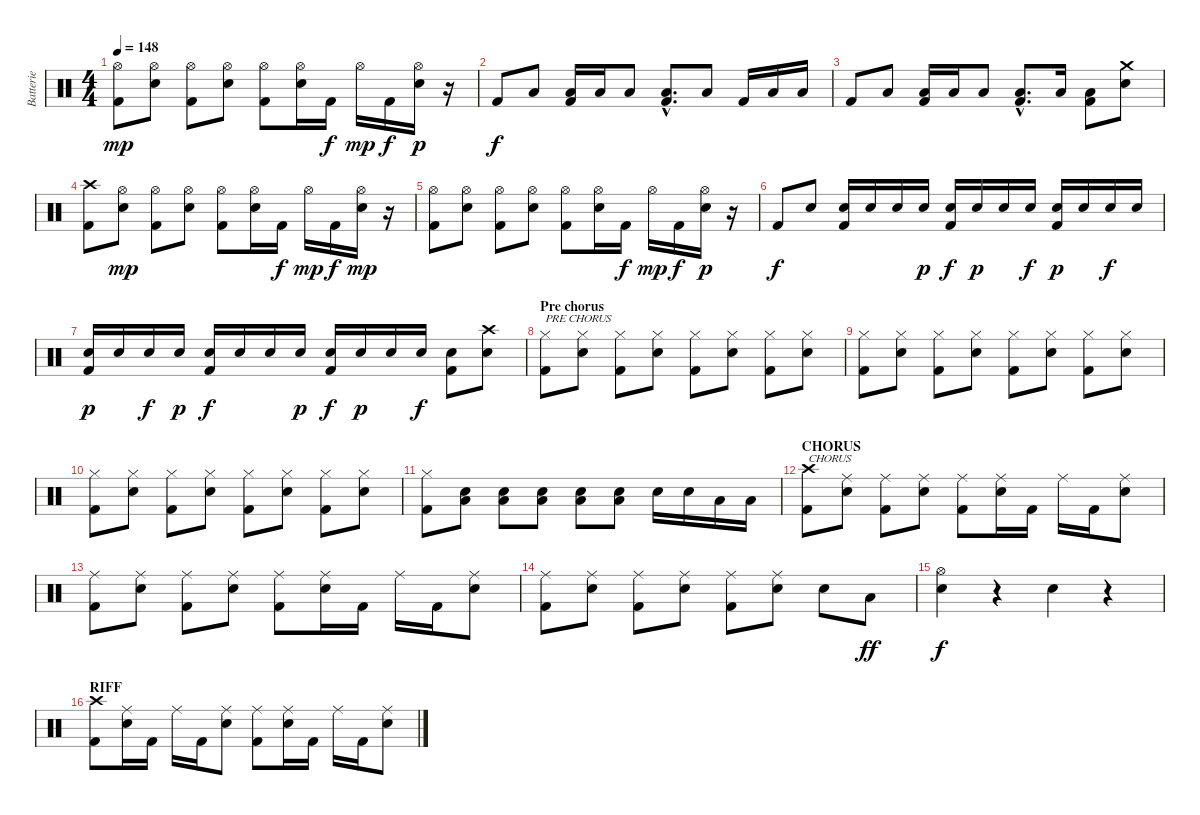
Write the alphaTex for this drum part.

\track ("Batterie" "Batterie") {instrument percussion}
\staff {score}
\articulation defaults
\ts (4 4)
\tempo 148
\clef neutral
\ks c
("Hi-Hat (open)" "Kick (hit) 2").8{dy mp} ("Hi-Hat (open)" "Electric Snare (hit)").8 ("Hi-Hat (open)" "Kick (hit) 2").8 ("Hi-Hat (open)" "Electric Snare (hit)").8 ("Hi-Hat (open)" "Kick (hit) 2").8 ("Hi-Hat (open)" "Electric Snare (hit)").16 "Kick (hit) 2".16{dy f} "Hi-Hat (open)".16{dy mp} "Kick (hit) 2".16{dy f} ("Hi-Hat (open)" "Electric Snare (hit)").16{dy p} r.16 |
"Kick (hit) 2".8{dy f} "Low Tom (hit)".8 ("Low Tom (hit)" "Kick (hit) 2").16 "Low Tom (hit)".16 "Low Tom (hit)".8 ("Low Tom (hit)"{hac} "Kick (hit) 2"{hac}).8{d} "Low Tom (hit)".8 "Kick (hit) 2".16 "Low Tom (hit)".16 "Low Tom (hit)".16 |
"Kick (hit) 2".8 "Low Tom (hit)".8 ("Low Tom (hit)" "Kick (hit) 2").16 "Low Tom (hit)".16 "Low Tom (hit)".8 ("Low Tom (hit)"{hac} "Kick (hit) 2"{hac}).8{d} "Low Tom (hit)".16 ("Low Tom (hit)" "Kick (hit) 2").8 ("Crash medium (hit)" "Electric Snare (hit)").8 |
("Crash high (hit)" "Kick (hit) 2").8 ("Hi-Hat (open)" "Electric Snare (hit)").8{dy mp} ("Hi-Hat (open)" "Kick (hit) 2").8 ("Hi-Hat (open)" "Electric Snare (hit)").8 ("Hi-Hat (open)" "Kick (hit) 2").8 ("Hi-Hat (open)" "Electric Snare (hit)").16 "Kick (hit) 2".16{dy f} "Hi-Hat (open)".16{dy mp} "Kick (hit) 2".16{dy f} ("Hi-Hat (open)" "Electric Snare (hit)").16{dy mp} r.16 |
("Hi-Hat (open)" "Kick (hit) 2").8 ("Hi-Hat (open)" "Electric Snare (hit)").8 ("Hi-Hat (open)" "Kick (hit) 2").8 ("Hi-Hat (open)" "Electric Snare (hit)").8 ("Hi-Hat (open)" "Kick (hit) 2").8 ("Hi-Hat (open)" "Electric Snare (hit)").16 "Kick (hit) 2".16{dy f} "Hi-Hat (open)".16{dy mp} "Kick (hit) 2".16{dy f} ("Hi-Hat (open)" "Electric Snare (hit)").16{dy p} r.16 |
"Kick (hit) 2".8{dy f} "Electric Snare (hit)".8 ("Electric Snare (hit)" "Kick (hit) 2").16 "Electric Snare (hit)".16 "Electric Snare (hit)".16 "Electric Snare (hit)".16{dy p} ("Electric Snare (hit)" "Kick (hit) 2").16{dy f} "Electric Snare (hit)".16{dy p} "Electric Snare (hit)".16 "Electric Snare (hit)".16{dy f} ("Electric Snare (hit)" "Kick (hit) 2").16{dy p} "Electric Snare (hit)".16 "Electric Snare (hit)".16{dy f} "Electric Snare (hit)".16 |
("Electric Snare (hit)" "Kick (hit) 2").16{dy p} "Electric Snare (hit)".16 "Electric Snare (hit)".16{dy f} "Electric Snare (hit)".16{dy p} ("Electric Snare (hit)" "Kick (hit) 2").16{dy f} "Electric Snare (hit)".16 "Electric Snare (hit)".16 "Electric Snare (hit)".16{dy p} ("Electric Snare (hit)" "Kick (hit) 2").16{dy f} "Electric Snare (hit)".16{dy p} "Electric Snare (hit)".16 "Electric Snare (hit)".16{dy f} ("Electric Snare (hit)" "Kick (hit) 2").8 ("Electric Snare (hit)" "Crash high (hit)").8 |
\section ("" "Pre chorus")
("Hi-Hat (closed)" "Kick (hit) 2").8{txt "PRE CHORUS"} ("Hi-Hat (closed)" "Electric Snare (hit)").8 ("Hi-Hat (closed)" "Kick (hit) 2").8 ("Hi-Hat (closed)" "Electric Snare (hit)").8 ("Hi-Hat (closed)" "Kick (hit) 2").8 ("Hi-Hat (closed)" "Electric Snare (hit)").8 ("Hi-Hat (closed)" "Kick (hit) 2").8 ("Hi-Hat (closed)" "Electric Snare (hit)").8 |
("Hi-Hat (closed)" "Kick (hit) 2").8 ("Hi-Hat (closed)" "Electric Snare (hit)").8 ("Hi-Hat (closed)" "Kick (hit) 2").8 ("Hi-Hat (closed)" "Electric Snare (hit)").8 ("Hi-Hat (closed)" "Kick (hit) 2").8 ("Hi-Hat (closed)" "Electric Snare (hit)").8 ("Hi-Hat (closed)" "Kick (hit) 2").8 ("Hi-Hat (closed)" "Electric Snare (hit)").8 |
("Hi-Hat (closed)" "Kick (hit) 2").8 ("Hi-Hat (closed)" "Electric Snare (hit)").8 ("Hi-Hat (closed)" "Kick (hit) 2").8 ("Hi-Hat (closed)" "Electric Snare (hit)").8 ("Hi-Hat (closed)" "Kick (hit) 2").8 ("Hi-Hat (closed)" "Electric Snare (hit)").8 ("Hi-Hat (closed)" "Kick (hit) 2").8 ("Hi-Hat (closed)" "Electric Snare (hit)").8 |
("Hi-Hat (closed)" "Kick (hit) 2").8 ("Low Floor Tom (hit)" "Electric Snare (hit)").8 ("Low Floor Tom (hit)" "Electric Snare (hit)").8 ("Low Floor Tom (hit)" "Electric Snare (hit)").8 ("Low Floor Tom (hit)" "Electric Snare (hit)").8 ("Low Floor Tom (hit)" "Electric Snare (hit)").8 "Electric Snare (hit)".16 "Electric Snare (hit)".16 "Low Tom (hit)".16 "Low Tom (hit)".16 |
\section ("" "CHORUS")
("Crash high (hit)" "Kick (hit) 2").8{txt "CHORUS"} ("Ride (middle)" "Electric Snare (hit)").8 ("Ride (middle)" "Kick (hit) 2").8 ("Ride (middle)" "Electric Snare (hit)").8 ("Ride (middle)" "Kick (hit) 2").8 ("Ride (middle)" "Electric Snare (hit)").16 "Kick (hit) 2".16 "Ride (middle)".16 "Kick (hit) 2".16 ("Ride (middle)" "Electric Snare (hit)").8 |
("Ride (middle)" "Kick (hit) 2").8 ("Ride (middle)" "Electric Snare (hit)").8 ("Ride (middle)" "Kick (hit) 2").8 ("Ride (middle)" "Electric Snare (hit)").8 ("Ride (middle)" "Kick (hit) 2").8 ("Ride (middle)" "Electric Snare (hit)").16 "Kick (hit) 2".16 "Ride (middle)".16 "Kick (hit) 2".16 ("Ride (middle)" "Electric Snare (hit)").8 |
("Ride (middle)" "Kick (hit) 2").8 ("Ride (middle)" "Electric Snare (hit)").8 ("Ride (middle)" "Kick (hit) 2").8 ("Ride (middle)" "Electric Snare (hit)").8 ("Ride (middle)" "Kick (hit) 2").8 ("Ride (middle)" "Electric Snare (hit)").8 "Electric Snare (hit)".8 "Low Tom (hit)".8{dy ff} |
("Hi-Hat (open)" "Electric Snare (hit)").4{dy f} r.4 "Electric Snare (hit)".4 r.4 |
\section ("" "RIFF")
("Crash high (hit)" "Kick (hit) 2").8 ("Ride (middle)" "Electric Snare (hit)").16 "Kick (hit) 2".16 "Ride (middle)".16 "Kick (hit) 2".16 ("Ride (middle)" "Electric Snare (hit)").8 ("Ride (middle)" "Kick (hit) 2").8 ("Ride (middle)" "Electric Snare (hit)").16 "Kick (hit) 2".16 "Ride (middle)".16 "Kick (hit) 2".16 ("Ride (middle)" "Electric Snare (hit)").8
